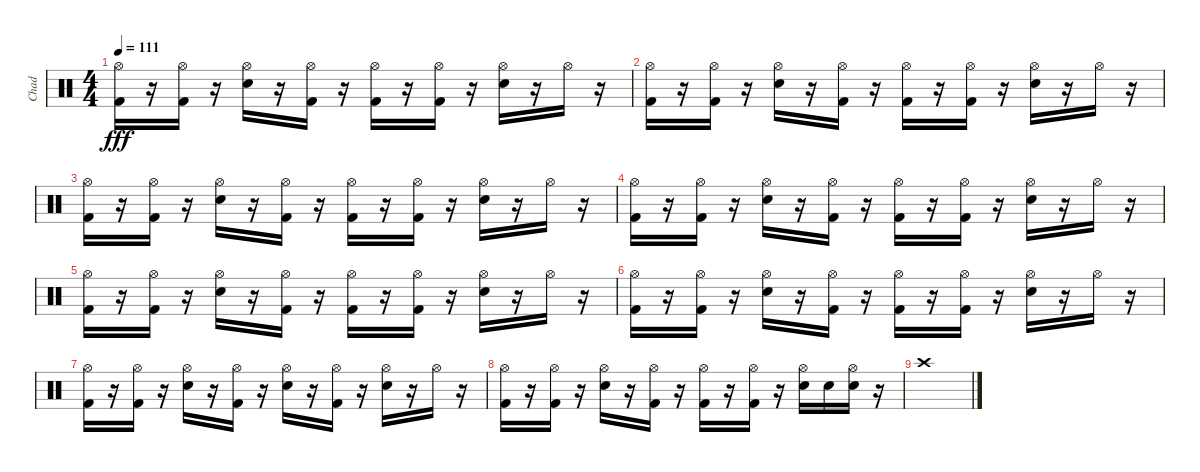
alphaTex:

\track ("Chad" "Chad") {instrument percussion}
\staff {score}
\articulation defaults
\ts (4 4)
\tempo 111
\clef neutral
\ks c
("Hi-Hat (open)" "Kick (hit) 2").16{dy fff} r.16 ("Hi-Hat (open)" "Kick (hit) 2").16 r.16 ("Hi-Hat (open)" "Electric Snare (hit)").16 r.16 ("Hi-Hat (open)" "Kick (hit) 2").16 r.16 ("Hi-Hat (open)" "Kick (hit) 2").16 r.16 ("Hi-Hat (open)" "Kick (hit) 2").16 r.16 ("Hi-Hat (open)" "Electric Snare (hit)").16 r.16 "Hi-Hat (open)".16 r.16 |
("Hi-Hat (open)" "Kick (hit) 2").16 r.16 ("Hi-Hat (open)" "Kick (hit) 2").16 r.16 ("Hi-Hat (open)" "Electric Snare (hit)").16 r.16 ("Hi-Hat (open)" "Kick (hit) 2").16 r.16 ("Hi-Hat (open)" "Kick (hit) 2").16 r.16 ("Hi-Hat (open)" "Kick (hit) 2").16 r.16 ("Hi-Hat (open)" "Electric Snare (hit)").16 r.16 "Hi-Hat (open)".16 r.16 |
("Hi-Hat (open)" "Kick (hit) 2").16 r.16 ("Hi-Hat (open)" "Kick (hit) 2").16 r.16 ("Hi-Hat (open)" "Electric Snare (hit)").16 r.16 ("Hi-Hat (open)" "Kick (hit) 2").16 r.16 ("Hi-Hat (open)" "Kick (hit) 2").16 r.16 ("Hi-Hat (open)" "Kick (hit) 2").16 r.16 ("Hi-Hat (open)" "Electric Snare (hit)").16 r.16 "Hi-Hat (open)".16 r.16 |
("Hi-Hat (open)" "Kick (hit) 2").16 r.16 ("Hi-Hat (open)" "Kick (hit) 2").16 r.16 ("Hi-Hat (open)" "Electric Snare (hit)").16 r.16 ("Hi-Hat (open)" "Kick (hit) 2").16 r.16 ("Hi-Hat (open)" "Kick (hit) 2").16 r.16 ("Hi-Hat (open)" "Kick (hit) 2").16 r.16 ("Hi-Hat (open)" "Electric Snare (hit)").16 r.16 "Hi-Hat (open)".16 r.16 |
("Hi-Hat (open)" "Kick (hit) 2").16 r.16 ("Hi-Hat (open)" "Kick (hit) 2").16 r.16 ("Hi-Hat (open)" "Electric Snare (hit)").16 r.16 ("Hi-Hat (open)" "Kick (hit) 2").16 r.16 ("Hi-Hat (open)" "Kick (hit) 2").16 r.16 ("Hi-Hat (open)" "Kick (hit) 2").16 r.16 ("Hi-Hat (open)" "Electric Snare (hit)").16 r.16 "Hi-Hat (open)".16 r.16 |
("Hi-Hat (open)" "Kick (hit) 2").16 r.16 ("Hi-Hat (open)" "Kick (hit) 2").16 r.16 ("Hi-Hat (open)" "Electric Snare (hit)").16 r.16 ("Hi-Hat (open)" "Kick (hit) 2").16 r.16 ("Hi-Hat (open)" "Kick (hit) 2").16 r.16 ("Hi-Hat (open)" "Kick (hit) 2").16 r.16 ("Hi-Hat (open)" "Electric Snare (hit)").16 r.16 "Hi-Hat (open)".16 r.16 |
("Hi-Hat (open)" "Kick (hit) 2").16 r.16 ("Hi-Hat (open)" "Kick (hit) 2").16 r.16 ("Hi-Hat (open)" "Electric Snare (hit)").16 r.16 ("Hi-Hat (open)" "Kick (hit) 2").16 r.16 ("Hi-Hat (open)" "Electric Snare (hit)").16 r.16 ("Hi-Hat (open)" "Kick (hit) 2").16 r.16 ("Hi-Hat (open)" "Electric Snare (hit)").16 r.16 "Hi-Hat (open)".16 r.16 |
("Hi-Hat (open)" "Kick (hit) 2").16 r.16 ("Hi-Hat (open)" "Kick (hit) 2").16 r.16 ("Hi-Hat (open)" "Electric Snare (hit)").16 r.16 ("Hi-Hat (open)" "Kick (hit) 2").16 r.16 ("Hi-Hat (open)" "Kick (hit) 2").16 r.16 ("Hi-Hat (open)" "Kick (hit) 2").16 r.16 ("Hi-Hat (open)" "Electric Snare (hit)").16 "Electric Snare (hit)".16 ("Hi-Hat (open)" "Electric Snare (hit)").16 r.16 |
"Crash high (hit)".1
